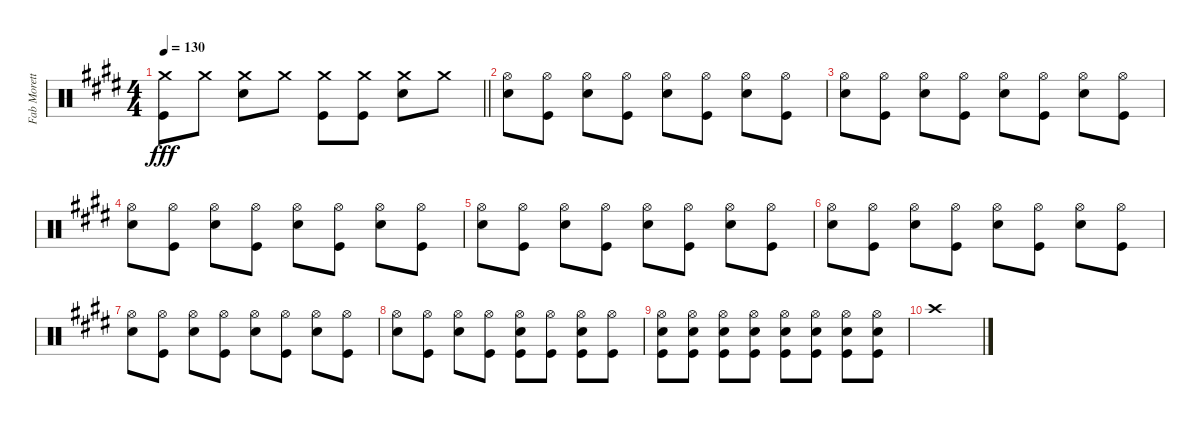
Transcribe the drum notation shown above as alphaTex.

\track ("Fab Moretti" "Fab Morett") {instrument percussion}
\staff {score}
\articulation defaults
\ts (4 4)
\tempo 130
\clef neutral
\barLineRight lightlight
\ks e
("Crash medium (hit)" "Kick (hit)").8{dy fff} "Crash medium (hit)".8 ("Crash medium (hit)" "Snare (hit) 2").8 "Crash medium (hit)".8 ("Crash medium (hit)" "Kick (hit)").8 ("Crash medium (hit)" "Kick (hit)").8 ("Crash medium (hit)" "Snare (hit) 2").8 "Crash medium (hit)".8 |
("Hi-Hat (open)" "Snare (hit) 2").8 ("Hi-Hat (open)" "Kick (hit)").8 ("Hi-Hat (open)" "Snare (hit) 2").8 ("Hi-Hat (open)" "Kick (hit)").8 ("Hi-Hat (open)" "Snare (hit) 2").8 ("Hi-Hat (open)" "Kick (hit)").8 ("Hi-Hat (open)" "Snare (hit) 2").8 ("Hi-Hat (open)" "Kick (hit)").8 |
("Hi-Hat (open)" "Snare (hit) 2").8 ("Hi-Hat (open)" "Kick (hit)").8 ("Hi-Hat (open)" "Snare (hit) 2").8 ("Hi-Hat (open)" "Kick (hit)").8 ("Hi-Hat (open)" "Snare (hit) 2").8 ("Hi-Hat (open)" "Kick (hit)").8 ("Hi-Hat (open)" "Snare (hit) 2").8 ("Hi-Hat (open)" "Kick (hit)").8 |
("Hi-Hat (open)" "Snare (hit) 2").8 ("Hi-Hat (open)" "Kick (hit)").8 ("Hi-Hat (open)" "Snare (hit) 2").8 ("Hi-Hat (open)" "Kick (hit)").8 ("Hi-Hat (open)" "Snare (hit) 2").8 ("Hi-Hat (open)" "Kick (hit)").8 ("Hi-Hat (open)" "Snare (hit) 2").8 ("Hi-Hat (open)" "Kick (hit)").8 |
("Hi-Hat (open)" "Snare (hit) 2").8 ("Hi-Hat (open)" "Kick (hit)").8 ("Hi-Hat (open)" "Snare (hit) 2").8 ("Hi-Hat (open)" "Kick (hit)").8 ("Hi-Hat (open)" "Snare (hit) 2").8 ("Hi-Hat (open)" "Kick (hit)").8 ("Hi-Hat (open)" "Snare (hit) 2").8 ("Hi-Hat (open)" "Kick (hit)").8 |
("Hi-Hat (open)" "Snare (hit) 2").8 ("Hi-Hat (open)" "Kick (hit)").8 ("Hi-Hat (open)" "Snare (hit) 2").8 ("Hi-Hat (open)" "Kick (hit)").8 ("Hi-Hat (open)" "Snare (hit) 2").8 ("Hi-Hat (open)" "Kick (hit)").8 ("Hi-Hat (open)" "Snare (hit) 2").8 ("Hi-Hat (open)" "Kick (hit)").8 |
("Hi-Hat (open)" "Snare (hit) 2").8 ("Hi-Hat (open)" "Kick (hit)").8 ("Hi-Hat (open)" "Snare (hit) 2").8 ("Hi-Hat (open)" "Kick (hit)").8 ("Hi-Hat (open)" "Snare (hit) 2").8 ("Hi-Hat (open)" "Kick (hit)").8 ("Hi-Hat (open)" "Snare (hit) 2").8 ("Hi-Hat (open)" "Kick (hit)").8 |
("Hi-Hat (open)" "Snare (hit) 2").8 ("Hi-Hat (open)" "Kick (hit)").8 ("Hi-Hat (open)" "Snare (hit) 2").8 ("Hi-Hat (open)" "Kick (hit)").8 ("Hi-Hat (open)" "Snare (hit) 2" "Kick (hit)").8 ("Hi-Hat (open)" "Kick (hit)").8 ("Hi-Hat (open)" "Snare (hit) 2" "Kick (hit)").8 ("Hi-Hat (open)" "Kick (hit)").8 |
("Hi-Hat (open)" "Snare (hit) 2" "Kick (hit)").8 ("Hi-Hat (open)" "Snare (hit) 2" "Kick (hit)").8 ("Hi-Hat (open)" "Snare (hit) 2" "Kick (hit)").8 ("Hi-Hat (open)" "Snare (hit) 2" "Kick (hit)").8 ("Hi-Hat (open)" "Snare (hit) 2" "Kick (hit)").8 ("Hi-Hat (open)" "Snare (hit) 2" "Kick (hit)").8 ("Hi-Hat (open)" "Snare (hit) 2" "Kick (hit)").8 ("Hi-Hat (open)" "Snare (hit) 2" "Kick (hit)").8 |
"Crash high (hit)".1
